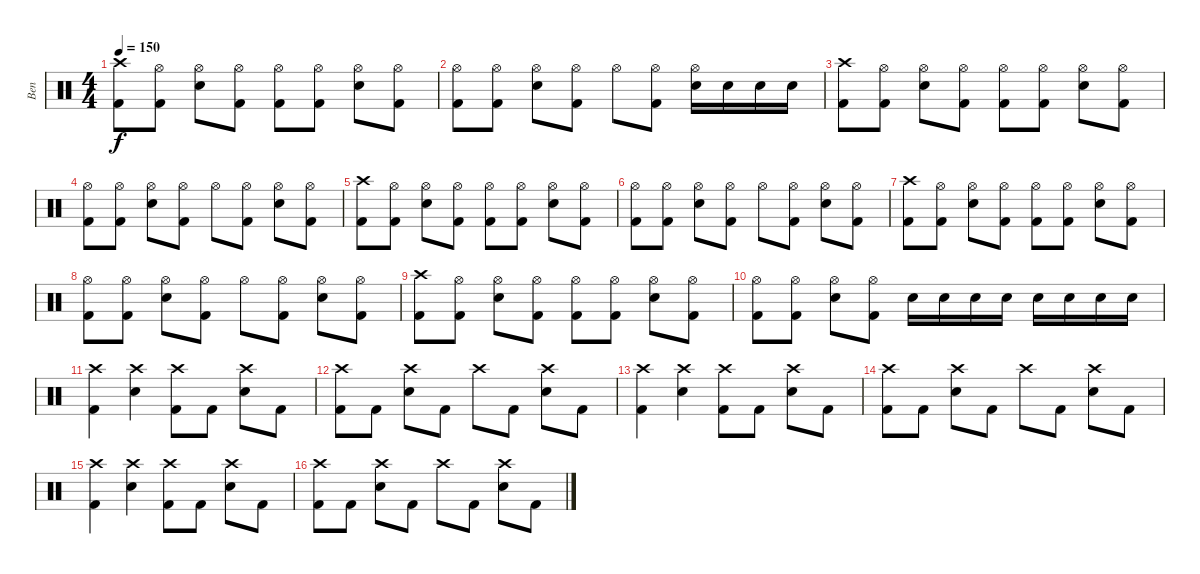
\track ("Ben" "Ben") {instrument percussion}
\staff {score}
\articulation defaults
\ts (4 4)
\tempo 150
\clef neutral
\ks c
("Crash high (hit)" "Kick (hit) 2").8{dy f} ("Hi-Hat (open)" "Kick (hit) 2").8 ("Hi-Hat (open)" "Snare (hit) 2").8 ("Hi-Hat (open)" "Kick (hit) 2").8 ("Hi-Hat (open)" "Kick (hit) 2").8 ("Hi-Hat (open)" "Kick (hit) 2").8 ("Hi-Hat (open)" "Snare (hit) 2").8 ("Hi-Hat (open)" "Kick (hit) 2").8 |
("Hi-Hat (open)" "Kick (hit) 2").8 ("Hi-Hat (open)" "Kick (hit) 2").8 ("Hi-Hat (open)" "Snare (hit) 2").8 ("Hi-Hat (open)" "Kick (hit) 2").8 "Hi-Hat (open)".8 ("Hi-Hat (open)" "Kick (hit) 2").8 ("Hi-Hat (open)" "Snare (hit) 2").16 "Snare (hit) 2".16 "Snare (hit) 2".16 "Snare (hit) 2".16 |
("Crash high (hit)" "Kick (hit) 2").8 ("Hi-Hat (open)" "Kick (hit) 2").8 ("Hi-Hat (open)" "Snare (hit) 2").8 ("Hi-Hat (open)" "Kick (hit) 2").8 ("Hi-Hat (open)" "Kick (hit) 2").8 ("Hi-Hat (open)" "Kick (hit) 2").8 ("Hi-Hat (open)" "Snare (hit) 2").8 ("Hi-Hat (open)" "Kick (hit) 2").8 |
("Hi-Hat (open)" "Kick (hit) 2").8 ("Hi-Hat (open)" "Kick (hit) 2").8 ("Hi-Hat (open)" "Snare (hit) 2").8 ("Hi-Hat (open)" "Kick (hit) 2").8 "Hi-Hat (open)".8 ("Hi-Hat (open)" "Kick (hit) 2").8 ("Hi-Hat (open)" "Snare (hit) 2").8 ("Hi-Hat (open)" "Kick (hit) 2").8 |
("Crash high (hit)" "Kick (hit) 2").8 ("Hi-Hat (open)" "Kick (hit) 2").8 ("Hi-Hat (open)" "Snare (hit) 2").8 ("Hi-Hat (open)" "Kick (hit) 2").8 ("Hi-Hat (open)" "Kick (hit) 2").8 ("Hi-Hat (open)" "Kick (hit) 2").8 ("Hi-Hat (open)" "Snare (hit) 2").8 ("Hi-Hat (open)" "Kick (hit) 2").8 |
("Hi-Hat (open)" "Kick (hit) 2").8 ("Hi-Hat (open)" "Kick (hit) 2").8 ("Hi-Hat (open)" "Snare (hit) 2").8 ("Hi-Hat (open)" "Kick (hit) 2").8 "Hi-Hat (open)".8 ("Hi-Hat (open)" "Kick (hit) 2").8 ("Hi-Hat (open)" "Snare (hit) 2").8 ("Hi-Hat (open)" "Kick (hit) 2").8 |
("Crash high (hit)" "Kick (hit) 2").8 ("Hi-Hat (open)" "Kick (hit) 2").8 ("Hi-Hat (open)" "Snare (hit) 2").8 ("Hi-Hat (open)" "Kick (hit) 2").8 ("Hi-Hat (open)" "Kick (hit) 2").8 ("Hi-Hat (open)" "Kick (hit) 2").8 ("Hi-Hat (open)" "Snare (hit) 2").8 ("Hi-Hat (open)" "Kick (hit) 2").8 |
("Hi-Hat (open)" "Kick (hit) 2").8 ("Hi-Hat (open)" "Kick (hit) 2").8 ("Hi-Hat (open)" "Snare (hit) 2").8 ("Hi-Hat (open)" "Kick (hit) 2").8 "Hi-Hat (open)".8 ("Hi-Hat (open)" "Kick (hit) 2").8 ("Hi-Hat (open)" "Snare (hit) 2").8 ("Hi-Hat (open)" "Kick (hit) 2").8 |
("Crash high (hit)" "Kick (hit) 2").8 ("Hi-Hat (open)" "Kick (hit) 2").8 ("Hi-Hat (open)" "Snare (hit) 2").8 ("Hi-Hat (open)" "Kick (hit) 2").8 ("Hi-Hat (open)" "Kick (hit) 2").8 ("Hi-Hat (open)" "Kick (hit) 2").8 ("Hi-Hat (open)" "Snare (hit) 2").8 ("Hi-Hat (open)" "Kick (hit) 2").8 |
("Hi-Hat (open)" "Kick (hit) 2").8 ("Hi-Hat (open)" "Kick (hit) 2").8 ("Hi-Hat (open)" "Snare (hit) 2").8 ("Hi-Hat (open)" "Kick (hit) 2").8 "Snare (hit) 2".16 "Snare (hit) 2".16 "Snare (hit) 2".16 "Snare (hit) 2".16 "Snare (hit) 2".16 "Snare (hit) 2".16 "Snare (hit) 2".16 "Snare (hit) 2".16 |
("Crash high (hit)" "Kick (hit) 2").4 ("Crash high (hit)" "Snare (hit) 2").4 ("Crash high (hit)" "Kick (hit) 2").8 "Kick (hit) 2".8 ("Crash high (hit)" "Snare (hit) 2").8 "Kick (hit) 2".8 |
("Crash high (hit)" "Kick (hit) 2").8 "Kick (hit) 2".8 ("Crash high (hit)" "Snare (hit) 2").8 "Kick (hit) 2".8 "Crash high (hit)".8 "Kick (hit) 2".8 ("Crash high (hit)" "Snare (hit) 2").8 "Kick (hit) 2".8 |
("Crash high (hit)" "Kick (hit) 2").4 ("Crash high (hit)" "Snare (hit) 2").4 ("Crash high (hit)" "Kick (hit) 2").8 "Kick (hit) 2".8 ("Crash high (hit)" "Snare (hit) 2").8 "Kick (hit) 2".8 |
("Crash high (hit)" "Kick (hit) 2").8 "Kick (hit) 2".8 ("Crash high (hit)" "Snare (hit) 2").8 "Kick (hit) 2".8 "Crash high (hit)".8 "Kick (hit) 2".8 ("Crash high (hit)" "Snare (hit) 2").8 "Kick (hit) 2".8 |
("Crash high (hit)" "Kick (hit) 2").4 ("Crash high (hit)" "Snare (hit) 2").4 ("Crash high (hit)" "Kick (hit) 2").8 "Kick (hit) 2".8 ("Crash high (hit)" "Snare (hit) 2").8 "Kick (hit) 2".8 |
("Crash high (hit)" "Kick (hit) 2").8 "Kick (hit) 2".8 ("Crash high (hit)" "Snare (hit) 2").8 "Kick (hit) 2".8 "Crash high (hit)".8 "Kick (hit) 2".8 ("Crash high (hit)" "Snare (hit) 2").8 "Kick (hit) 2".8
